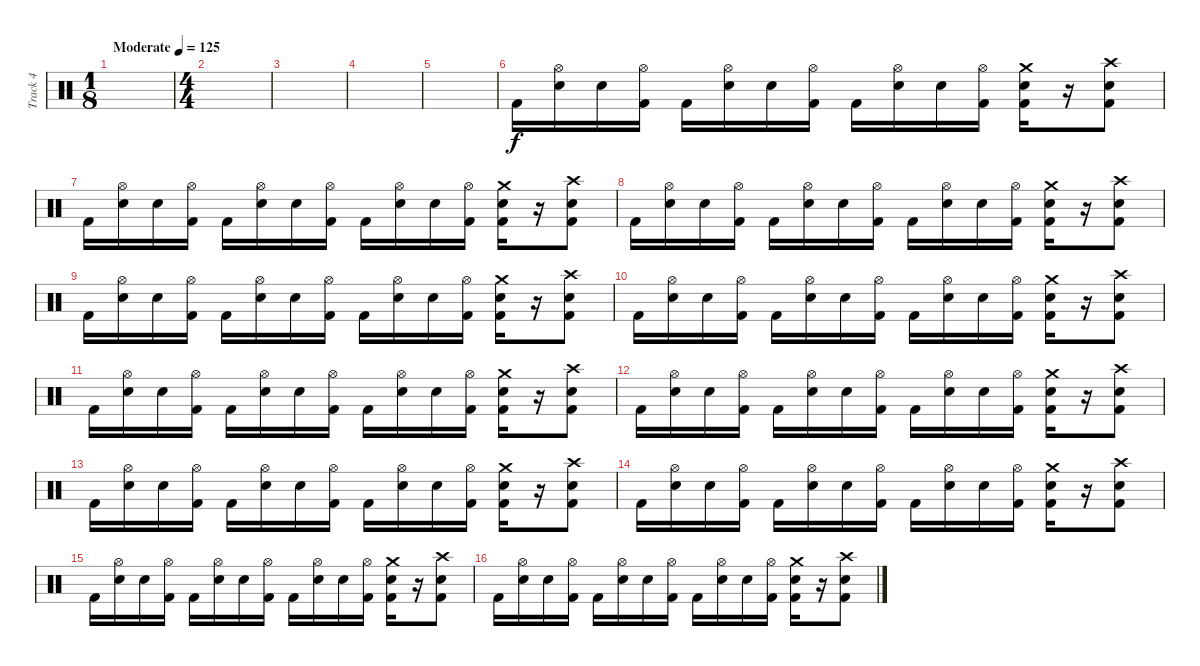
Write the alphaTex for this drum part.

\track ("Track 4" "Track 4") {instrument percussion}
\staff {score}
\articulation defaults
\ts (1 8)
\tempo (125 "Moderate")
\clef neutral
\ks c
|
\ts (4 4)
|
|
|
|
"Kick (hit) 2".16 ("Hi-Hat (open)" "Electric Snare (hit)").16 "Electric Snare (hit)".16 ("Hi-Hat (open)" "Kick (hit) 2").16 "Kick (hit) 2".16 ("Hi-Hat (open)" "Electric Snare (hit)").16 "Electric Snare (hit)".16 ("Hi-Hat (open)" "Kick (hit) 2").16 "Kick (hit) 2".16 ("Hi-Hat (open)" "Electric Snare (hit)").16 "Electric Snare (hit)".16 ("Hi-Hat (open)" "Kick (hit) 2").16 ("Crash medium (hit)" "Electric Snare (hit)" "Kick (hit) 2").16 r.16 ("Crash high (hit)" "Electric Snare (hit)" "Kick (hit) 2").8 |
"Kick (hit) 2".16 ("Hi-Hat (open)" "Electric Snare (hit)").16 "Electric Snare (hit)".16 ("Hi-Hat (open)" "Kick (hit) 2").16 "Kick (hit) 2".16 ("Hi-Hat (open)" "Electric Snare (hit)").16 "Electric Snare (hit)".16 ("Hi-Hat (open)" "Kick (hit) 2").16 "Kick (hit) 2".16 ("Hi-Hat (open)" "Electric Snare (hit)").16 "Electric Snare (hit)".16 ("Hi-Hat (open)" "Kick (hit) 2").16 ("Crash medium (hit)" "Electric Snare (hit)" "Kick (hit) 2").16 r.16 ("Crash high (hit)" "Electric Snare (hit)" "Kick (hit) 2").8 |
"Kick (hit) 2".16 ("Hi-Hat (open)" "Electric Snare (hit)").16 "Electric Snare (hit)".16 ("Hi-Hat (open)" "Kick (hit) 2").16 "Kick (hit) 2".16 ("Hi-Hat (open)" "Electric Snare (hit)").16 "Electric Snare (hit)".16 ("Hi-Hat (open)" "Kick (hit) 2").16 "Kick (hit) 2".16 ("Hi-Hat (open)" "Electric Snare (hit)").16 "Electric Snare (hit)".16 ("Hi-Hat (open)" "Kick (hit) 2").16 ("Crash medium (hit)" "Electric Snare (hit)" "Kick (hit) 2").16 r.16 ("Crash high (hit)" "Electric Snare (hit)" "Kick (hit) 2").8 |
"Kick (hit) 2".16 ("Hi-Hat (open)" "Electric Snare (hit)").16 "Electric Snare (hit)".16 ("Hi-Hat (open)" "Kick (hit) 2").16 "Kick (hit) 2".16 ("Hi-Hat (open)" "Electric Snare (hit)").16 "Electric Snare (hit)".16 ("Hi-Hat (open)" "Kick (hit) 2").16 "Kick (hit) 2".16 ("Hi-Hat (open)" "Electric Snare (hit)").16 "Electric Snare (hit)".16 ("Hi-Hat (open)" "Kick (hit) 2").16 ("Crash medium (hit)" "Electric Snare (hit)" "Kick (hit) 2").16 r.16 ("Crash high (hit)" "Electric Snare (hit)" "Kick (hit) 2").8 |
"Kick (hit) 2".16 ("Hi-Hat (open)" "Electric Snare (hit)").16 "Electric Snare (hit)".16 ("Hi-Hat (open)" "Kick (hit) 2").16 "Kick (hit) 2".16 ("Hi-Hat (open)" "Electric Snare (hit)").16 "Electric Snare (hit)".16 ("Hi-Hat (open)" "Kick (hit) 2").16 "Kick (hit) 2".16 ("Hi-Hat (open)" "Electric Snare (hit)").16 "Electric Snare (hit)".16 ("Hi-Hat (open)" "Kick (hit) 2").16 ("Crash medium (hit)" "Electric Snare (hit)" "Kick (hit) 2").16 r.16 ("Crash high (hit)" "Electric Snare (hit)" "Kick (hit) 2").8 |
"Kick (hit) 2".16 ("Hi-Hat (open)" "Electric Snare (hit)").16 "Electric Snare (hit)".16 ("Hi-Hat (open)" "Kick (hit) 2").16 "Kick (hit) 2".16 ("Hi-Hat (open)" "Electric Snare (hit)").16 "Electric Snare (hit)".16 ("Hi-Hat (open)" "Kick (hit) 2").16 "Kick (hit) 2".16 ("Hi-Hat (open)" "Electric Snare (hit)").16 "Electric Snare (hit)".16 ("Hi-Hat (open)" "Kick (hit) 2").16 ("Crash medium (hit)" "Electric Snare (hit)" "Kick (hit) 2").16 r.16 ("Crash high (hit)" "Electric Snare (hit)" "Kick (hit) 2").8 |
"Kick (hit) 2".16 ("Hi-Hat (open)" "Electric Snare (hit)").16 "Electric Snare (hit)".16 ("Hi-Hat (open)" "Kick (hit) 2").16 "Kick (hit) 2".16 ("Hi-Hat (open)" "Electric Snare (hit)").16 "Electric Snare (hit)".16 ("Hi-Hat (open)" "Kick (hit) 2").16 "Kick (hit) 2".16 ("Hi-Hat (open)" "Electric Snare (hit)").16 "Electric Snare (hit)".16 ("Hi-Hat (open)" "Kick (hit) 2").16 ("Crash medium (hit)" "Electric Snare (hit)" "Kick (hit) 2").16 r.16 ("Crash high (hit)" "Electric Snare (hit)" "Kick (hit) 2").8 |
"Kick (hit) 2".16 ("Hi-Hat (open)" "Electric Snare (hit)").16 "Electric Snare (hit)".16 ("Hi-Hat (open)" "Kick (hit) 2").16 "Kick (hit) 2".16 ("Hi-Hat (open)" "Electric Snare (hit)").16 "Electric Snare (hit)".16 ("Hi-Hat (open)" "Kick (hit) 2").16 "Kick (hit) 2".16 ("Hi-Hat (open)" "Electric Snare (hit)").16 "Electric Snare (hit)".16 ("Hi-Hat (open)" "Kick (hit) 2").16 ("Crash medium (hit)" "Electric Snare (hit)" "Kick (hit) 2").16 r.16 ("Crash high (hit)" "Electric Snare (hit)" "Kick (hit) 2").8 |
"Kick (hit) 2".16 ("Hi-Hat (open)" "Electric Snare (hit)").16 "Electric Snare (hit)".16 ("Hi-Hat (open)" "Kick (hit) 2").16 "Kick (hit) 2".16 ("Hi-Hat (open)" "Electric Snare (hit)").16 "Electric Snare (hit)".16 ("Hi-Hat (open)" "Kick (hit) 2").16 "Kick (hit) 2".16 ("Hi-Hat (open)" "Electric Snare (hit)").16 "Electric Snare (hit)".16 ("Hi-Hat (open)" "Kick (hit) 2").16 ("Crash medium (hit)" "Electric Snare (hit)" "Kick (hit) 2").16 r.16 ("Crash high (hit)" "Electric Snare (hit)" "Kick (hit) 2").8 |
"Kick (hit) 2".16 ("Hi-Hat (open)" "Electric Snare (hit)").16 "Electric Snare (hit)".16 ("Hi-Hat (open)" "Kick (hit) 2").16 "Kick (hit) 2".16 ("Hi-Hat (open)" "Electric Snare (hit)").16 "Electric Snare (hit)".16 ("Hi-Hat (open)" "Kick (hit) 2").16 "Kick (hit) 2".16 ("Hi-Hat (open)" "Electric Snare (hit)").16 "Electric Snare (hit)".16 ("Hi-Hat (open)" "Kick (hit) 2").16 ("Crash medium (hit)" "Electric Snare (hit)" "Kick (hit) 2").16 r.16 ("Crash high (hit)" "Electric Snare (hit)" "Kick (hit) 2").8 |
"Kick (hit) 2".16 ("Hi-Hat (open)" "Electric Snare (hit)").16 "Electric Snare (hit)".16 ("Hi-Hat (open)" "Kick (hit) 2").16 "Kick (hit) 2".16 ("Hi-Hat (open)" "Electric Snare (hit)").16 "Electric Snare (hit)".16 ("Hi-Hat (open)" "Kick (hit) 2").16 "Kick (hit) 2".16 ("Hi-Hat (open)" "Electric Snare (hit)").16 "Electric Snare (hit)".16 ("Hi-Hat (open)" "Kick (hit) 2").16 ("Crash medium (hit)" "Electric Snare (hit)" "Kick (hit) 2").16 r.16 ("Crash high (hit)" "Electric Snare (hit)" "Kick (hit) 2").8
